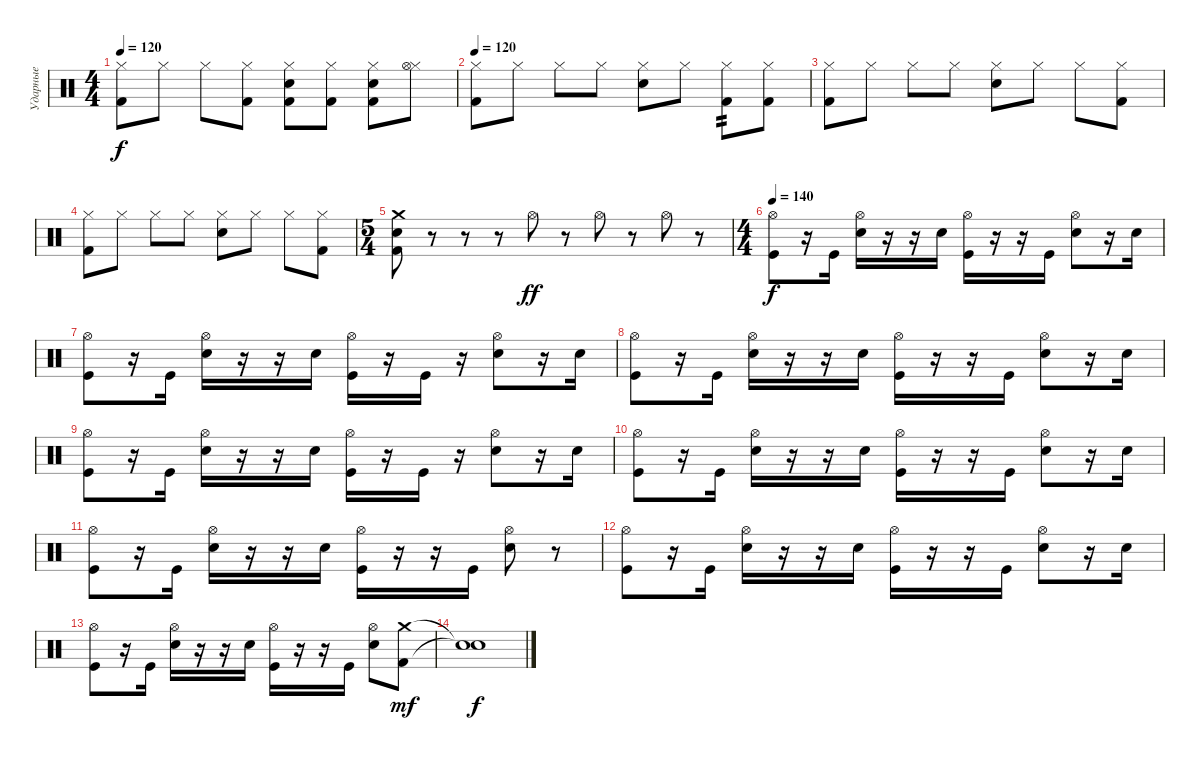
\track ("Ударные" "Ударные") {instrument percussion}
\staff {score}
\articulation defaults
\ts (4 4)
\tempo 120
\clef neutral
\ks c
("Hi-Hat (closed)" "Kick (hit) 2").8{dy f} "Hi-Hat (closed)".8 "Hi-Hat (closed)".8 ("Hi-Hat (closed)" "Kick (hit) 2").8 ("Hi-Hat (closed)" "Snare (hit) 2" "Kick (hit) 2").8 ("Hi-Hat (closed)" "Kick (hit) 2").8 ("Hi-Hat (closed)" "Snare (hit) 2" "Kick (hit) 2").8 ("Hi-Hat (closed)" "Hi-Hat (open)").8 |
\tempo 120
("Hi-Hat (closed)" "Kick (hit) 2").8 "Hi-Hat (closed)".8 "Hi-Hat (closed)".8 "Hi-Hat (closed)".8 ("Hi-Hat (closed)" "Snare (hit) 2").8 "Hi-Hat (closed)".8 ("Hi-Hat (closed)" "Kick (hit) 2").8{tp 2} ("Hi-Hat (closed)" "Kick (hit) 2").8 |
("Hi-Hat (closed)" "Kick (hit) 2").8 "Hi-Hat (closed)".8 "Hi-Hat (closed)".8 "Hi-Hat (closed)".8 ("Hi-Hat (closed)" "Snare (hit) 2").8 "Hi-Hat (closed)".8 "Hi-Hat (closed)".8 ("Hi-Hat (closed)" "Kick (hit) 2").8 |
("Hi-Hat (closed)" "Kick (hit) 2").8 "Hi-Hat (closed)".8 "Hi-Hat (closed)".8 "Hi-Hat (closed)".8 ("Hi-Hat (closed)" "Snare (hit) 2").8 "Hi-Hat (closed)".8 "Hi-Hat (closed)".8 ("Hi-Hat (closed)" "Kick (hit) 2").8 |
\ts (5 4)
("Snare (hit) 2" "Crash medium (hit)" "Kick (hit) 2").8 r.8 r.8 r.8 "Hi-Hat (open)".8{dy ff} r.8 "Hi-Hat (open)".8 r.8 "Hi-Hat (open)".8 r.8 |
\ts (4 4)
\tempo 140
("Hi-Hat (open)" "Kick (hit)").8{dy f} r.16 "Kick (hit)".16 ("Hi-Hat (open)" "Snare (hit) 2").16 r.16 r.16 "Snare (hit) 2".16 ("Hi-Hat (open)" "Kick (hit)").16 r.16 r.16 "Kick (hit)".16 ("Hi-Hat (open)" "Snare (hit) 2").8 r.16 "Snare (hit) 2".16 |
("Hi-Hat (open)" "Kick (hit)").8 r.16 "Kick (hit)".16 ("Hi-Hat (open)" "Snare (hit) 2").16 r.16 r.16 "Snare (hit) 2".16 ("Hi-Hat (open)" "Kick (hit)").16 r.16 "Kick (hit)".16 r.16 ("Hi-Hat (open)" "Snare (hit) 2").8 r.16 "Snare (hit) 2".16 |
("Hi-Hat (open)" "Kick (hit)").8 r.16 "Kick (hit)".16 ("Hi-Hat (open)" "Snare (hit) 2").16 r.16 r.16 "Snare (hit) 2".16 ("Hi-Hat (open)" "Kick (hit)").16 r.16 r.16 "Kick (hit)".16 ("Hi-Hat (open)" "Snare (hit) 2").8 r.16 "Snare (hit) 2".16 |
("Hi-Hat (open)" "Kick (hit)").8 r.16 "Kick (hit)".16 ("Hi-Hat (open)" "Snare (hit) 2").16 r.16 r.16 "Snare (hit) 2".16 ("Hi-Hat (open)" "Kick (hit)").16 r.16 "Kick (hit)".16 r.16 ("Hi-Hat (open)" "Snare (hit) 2").8 r.16 "Snare (hit) 2".16 |
("Hi-Hat (open)" "Kick (hit)").8 r.16 "Kick (hit)".16 ("Hi-Hat (open)" "Snare (hit) 2").16 r.16 r.16 "Snare (hit) 2".16 ("Hi-Hat (open)" "Kick (hit)").16 r.16 r.16 "Kick (hit)".16 ("Hi-Hat (open)" "Snare (hit) 2").8 r.16 "Snare (hit) 2".16 |
("Hi-Hat (open)" "Kick (hit)").8 r.16 "Kick (hit)".16 ("Hi-Hat (open)" "Snare (hit) 2").16 r.16 r.16 "Snare (hit) 2".16 ("Hi-Hat (open)" "Kick (hit)").16 r.16 r.16 "Kick (hit)".16 ("Hi-Hat (open)" "Snare (hit) 2").8 r.8 |
("Hi-Hat (open)" "Kick (hit)").8 r.16 "Kick (hit)".16 ("Hi-Hat (open)" "Snare (hit) 2").16 r.16 r.16 "Snare (hit) 2".16 ("Hi-Hat (open)" "Kick (hit)").16 r.16 r.16 "Kick (hit)".16 ("Hi-Hat (open)" "Snare (hit) 2").8 r.16 "Snare (hit) 2".16 |
("Hi-Hat (open)" "Kick (hit)").8 r.16 "Kick (hit)".16 ("Hi-Hat (open)" "Snare (hit) 2").16 r.16 r.16 "Snare (hit) 2".16 ("Hi-Hat (open)" "Kick (hit)").16 r.16 r.16 "Kick (hit)".16 ("Hi-Hat (open)" "Snare (hit) 2").8 ("Kick (hit) 2" "Crash medium (hit)").8{dy mf} |
("Snare (hit)"{t} "Snare (hit)"{t}).1{dy f}
